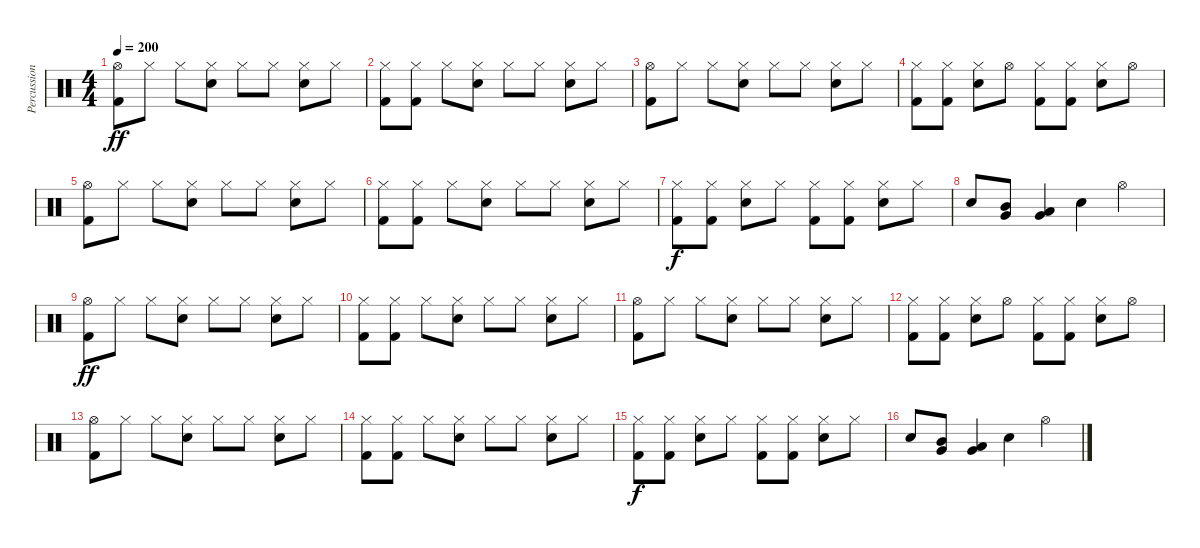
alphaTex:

\track ("Percussion" "Percussion") {instrument percussion}
\staff {score}
\articulation defaults
\ts (4 4)
\tempo 200
\clef neutral
\ks c
("Hi-Hat (open)" "Kick (hit) 2").8{dy ff} "Hi-Hat (closed)".8 "Hi-Hat (closed)".8 ("Hi-Hat (closed)" "Snare (hit) 2").8 "Hi-Hat (closed)".8 "Hi-Hat (closed)".8 ("Hi-Hat (closed)" "Snare (hit) 2").8 "Hi-Hat (closed)".8 |
("Hi-Hat (closed)" "Kick (hit) 2").8 ("Hi-Hat (closed)" "Kick (hit) 2").8 "Hi-Hat (closed)".8 ("Hi-Hat (closed)" "Snare (hit) 2").8 "Hi-Hat (closed)".8 "Hi-Hat (closed)".8 ("Hi-Hat (closed)" "Snare (hit) 2").8 "Hi-Hat (closed)".8 |
("Hi-Hat (open)" "Kick (hit) 2").8 "Hi-Hat (closed)".8 "Hi-Hat (closed)".8 ("Hi-Hat (closed)" "Snare (hit) 2").8 "Hi-Hat (closed)".8 "Hi-Hat (closed)".8 ("Hi-Hat (closed)" "Snare (hit) 2").8 "Hi-Hat (closed)".8 |
("Hi-Hat (closed)" "Kick (hit) 2").8 ("Hi-Hat (closed)" "Kick (hit) 2").8 ("Hi-Hat (closed)" "Snare (hit) 2").8 "Hi-Hat (open)".8 ("Hi-Hat (closed)" "Kick (hit) 2").8 ("Hi-Hat (closed)" "Kick (hit) 2").8 ("Hi-Hat (closed)" "Snare (hit) 2").8 "Hi-Hat (open)".8 |
("Hi-Hat (open)" "Kick (hit) 2").8 "Hi-Hat (closed)".8 "Hi-Hat (closed)".8 ("Hi-Hat (closed)" "Snare (hit) 2").8 "Hi-Hat (closed)".8 "Hi-Hat (closed)".8 ("Hi-Hat (closed)" "Snare (hit) 2").8 "Hi-Hat (closed)".8 |
("Hi-Hat (closed)" "Kick (hit) 2").8 ("Hi-Hat (closed)" "Kick (hit) 2").8 "Hi-Hat (closed)".8 ("Hi-Hat (closed)" "Snare (hit) 2").8 "Hi-Hat (closed)".8 "Hi-Hat (closed)".8 ("Hi-Hat (closed)" "Snare (hit) 2").8 "Hi-Hat (closed)".8 |
("Hi-Hat (closed)" "Kick (hit) 2").8{dy f} ("Hi-Hat (closed)" "Kick (hit) 2").8 ("Hi-Hat (closed)" "Snare (hit) 2").8 "Hi-Hat (closed)".8 ("Hi-Hat (closed)" "Kick (hit) 2").8 ("Hi-Hat (closed)" "Kick (hit) 2").8 ("Hi-Hat (closed)" "Snare (hit) 2").8 "Hi-Hat (closed)".8 |
"Snare (hit) 2".8 ("Mid Tom (hit)" "Very Low Tom (hit)").8 ("Low Tom (hit)" "Very Low Tom (hit)").4 "Snare (hit) 2".4 "Hi-Hat (open)".4 |
("Hi-Hat (open)" "Kick (hit) 2").8{dy ff} "Hi-Hat (closed)".8 "Hi-Hat (closed)".8 ("Hi-Hat (closed)" "Snare (hit) 2").8 "Hi-Hat (closed)".8 "Hi-Hat (closed)".8 ("Hi-Hat (closed)" "Snare (hit) 2").8 "Hi-Hat (closed)".8 |
("Hi-Hat (closed)" "Kick (hit) 2").8 ("Hi-Hat (closed)" "Kick (hit) 2").8 "Hi-Hat (closed)".8 ("Hi-Hat (closed)" "Snare (hit) 2").8 "Hi-Hat (closed)".8 "Hi-Hat (closed)".8 ("Hi-Hat (closed)" "Snare (hit) 2").8 "Hi-Hat (closed)".8 |
("Hi-Hat (open)" "Kick (hit) 2").8 "Hi-Hat (closed)".8 "Hi-Hat (closed)".8 ("Hi-Hat (closed)" "Snare (hit) 2").8 "Hi-Hat (closed)".8 "Hi-Hat (closed)".8 ("Hi-Hat (closed)" "Snare (hit) 2").8 "Hi-Hat (closed)".8 |
("Hi-Hat (closed)" "Kick (hit) 2").8 ("Hi-Hat (closed)" "Kick (hit) 2").8 ("Hi-Hat (closed)" "Snare (hit) 2").8 "Hi-Hat (open)".8 ("Hi-Hat (closed)" "Kick (hit) 2").8 ("Hi-Hat (closed)" "Kick (hit) 2").8 ("Hi-Hat (closed)" "Snare (hit) 2").8 "Hi-Hat (open)".8 |
("Hi-Hat (open)" "Kick (hit) 2").8 "Hi-Hat (closed)".8 "Hi-Hat (closed)".8 ("Hi-Hat (closed)" "Snare (hit) 2").8 "Hi-Hat (closed)".8 "Hi-Hat (closed)".8 ("Hi-Hat (closed)" "Snare (hit) 2").8 "Hi-Hat (closed)".8 |
("Hi-Hat (closed)" "Kick (hit) 2").8 ("Hi-Hat (closed)" "Kick (hit) 2").8 "Hi-Hat (closed)".8 ("Hi-Hat (closed)" "Snare (hit) 2").8 "Hi-Hat (closed)".8 "Hi-Hat (closed)".8 ("Hi-Hat (closed)" "Snare (hit) 2").8 "Hi-Hat (closed)".8 |
("Hi-Hat (closed)" "Kick (hit) 2").8{dy f} ("Hi-Hat (closed)" "Kick (hit) 2").8 ("Hi-Hat (closed)" "Snare (hit) 2").8 "Hi-Hat (closed)".8 ("Hi-Hat (closed)" "Kick (hit) 2").8 ("Hi-Hat (closed)" "Kick (hit) 2").8 ("Hi-Hat (closed)" "Snare (hit) 2").8 "Hi-Hat (closed)".8 |
"Snare (hit) 2".8 ("Mid Tom (hit)" "Very Low Tom (hit)").8 ("Low Tom (hit)" "Very Low Tom (hit)").4 "Snare (hit) 2".4 "Hi-Hat (open)".4
